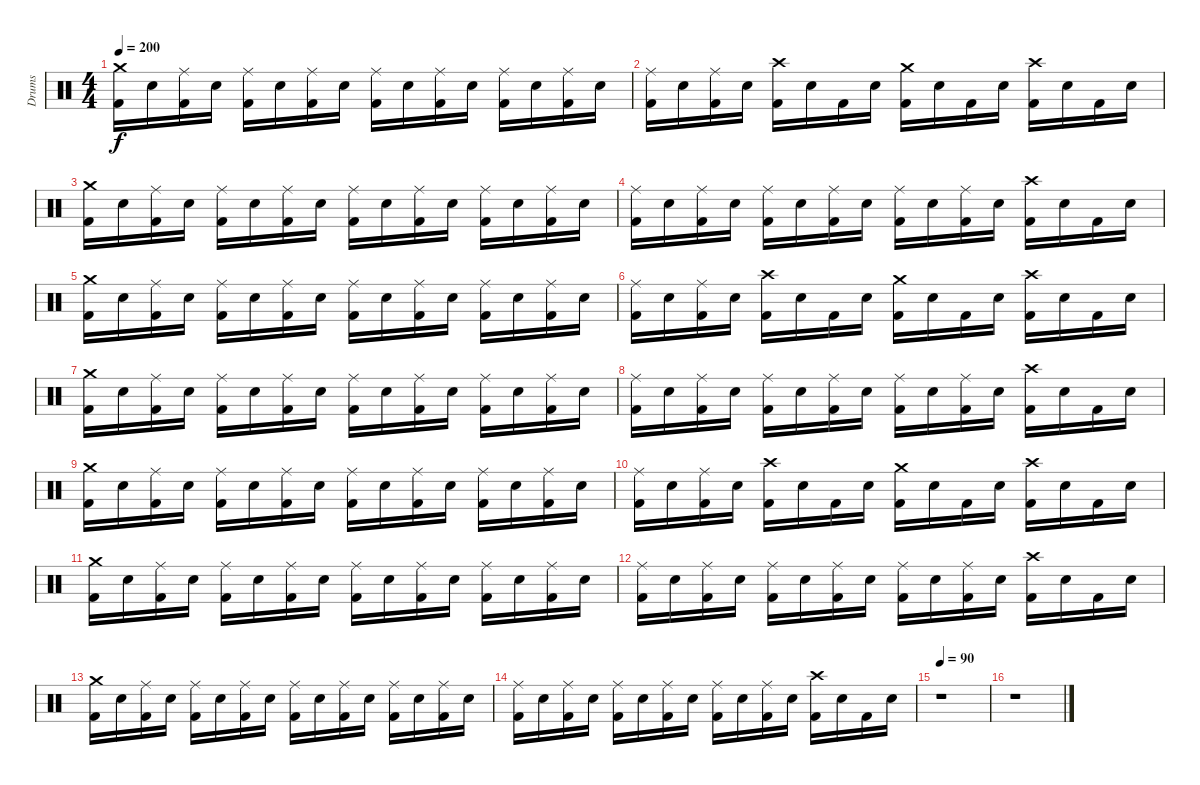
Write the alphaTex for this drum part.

\track ("Drums" "Drums") {instrument percussion}
\staff {score}
\articulation defaults
\ts (4 4)
\tempo 200
\clef neutral
\ks c
("Crash medium (hit)" "Kick (hit) 2").16{dy f} "Electric Snare (hit)".16 ("Ride (middle)" "Kick (hit) 2").16 "Electric Snare (hit)".16 ("Ride (middle)" "Kick (hit) 2").16 "Electric Snare (hit)".16 ("Ride (middle)" "Kick (hit) 2").16 "Electric Snare (hit)".16 ("Ride (middle)" "Kick (hit) 2").16 "Electric Snare (hit)".16 ("Ride (middle)" "Kick (hit) 2").16 "Electric Snare (hit)".16 ("Ride (middle)" "Kick (hit) 2").16 "Electric Snare (hit)".16 ("Ride (middle)" "Kick (hit) 2").16 "Electric Snare (hit)".16 |
("Ride (middle)" "Kick (hit) 2").16 "Electric Snare (hit)".16 ("Ride (middle)" "Kick (hit) 2").16 "Electric Snare (hit)".16 ("Crash high (hit)" "Kick (hit) 2").16 "Electric Snare (hit)".16 "Kick (hit) 2".16 "Electric Snare (hit)".16 ("Crash medium (hit)" "Kick (hit) 2").16 "Electric Snare (hit)".16 "Kick (hit) 2".16 "Electric Snare (hit)".16 ("Crash high (hit)" "Kick (hit) 2").16 "Electric Snare (hit)".16 "Kick (hit) 2".16 "Electric Snare (hit)".16 |
("Crash medium (hit)" "Kick (hit) 2").16 "Electric Snare (hit)".16 ("Ride (middle)" "Kick (hit) 2").16 "Electric Snare (hit)".16 ("Ride (middle)" "Kick (hit) 2").16 "Electric Snare (hit)".16 ("Ride (middle)" "Kick (hit) 2").16 "Electric Snare (hit)".16 ("Ride (middle)" "Kick (hit) 2").16 "Electric Snare (hit)".16 ("Ride (middle)" "Kick (hit) 2").16 "Electric Snare (hit)".16 ("Ride (middle)" "Kick (hit) 2").16 "Electric Snare (hit)".16 ("Ride (middle)" "Kick (hit) 2").16 "Electric Snare (hit)".16 |
("Ride (middle)" "Kick (hit) 2").16 "Electric Snare (hit)".16 ("Ride (middle)" "Kick (hit) 2").16 "Electric Snare (hit)".16 ("Ride (middle)" "Kick (hit) 2").16 "Electric Snare (hit)".16 ("Ride (middle)" "Kick (hit) 2").16 "Electric Snare (hit)".16 ("Ride (middle)" "Kick (hit) 2").16 "Electric Snare (hit)".16 ("Ride (middle)" "Kick (hit) 2").16 "Electric Snare (hit)".16 ("Crash high (hit)" "Kick (hit) 2").16 "Electric Snare (hit)".16 "Kick (hit) 2".16 "Electric Snare (hit)".16 |
("Crash medium (hit)" "Kick (hit) 2").16{volume 13} "Electric Snare (hit)".16 ("Ride (middle)" "Kick (hit) 2").16 "Electric Snare (hit)".16 ("Ride (middle)" "Kick (hit) 2").16 "Electric Snare (hit)".16 ("Ride (middle)" "Kick (hit) 2").16 "Electric Snare (hit)".16 ("Ride (middle)" "Kick (hit) 2").16 "Electric Snare (hit)".16 ("Ride (middle)" "Kick (hit) 2").16 "Electric Snare (hit)".16 ("Ride (middle)" "Kick (hit) 2").16 "Electric Snare (hit)".16 ("Ride (middle)" "Kick (hit) 2").16 "Electric Snare (hit)".16 |
("Ride (middle)" "Kick (hit) 2").16 "Electric Snare (hit)".16 ("Ride (middle)" "Kick (hit) 2").16 "Electric Snare (hit)".16 ("Crash high (hit)" "Kick (hit) 2").16 "Electric Snare (hit)".16 "Kick (hit) 2".16 "Electric Snare (hit)".16 ("Crash medium (hit)" "Kick (hit) 2").16 "Electric Snare (hit)".16 "Kick (hit) 2".16 "Electric Snare (hit)".16 ("Crash high (hit)" "Kick (hit) 2").16 "Electric Snare (hit)".16 "Kick (hit) 2".16 "Electric Snare (hit)".16 |
("Crash medium (hit)" "Kick (hit) 2").16{volume 11} "Electric Snare (hit)".16 ("Ride (middle)" "Kick (hit) 2").16 "Electric Snare (hit)".16 ("Ride (middle)" "Kick (hit) 2").16 "Electric Snare (hit)".16 ("Ride (middle)" "Kick (hit) 2").16 "Electric Snare (hit)".16 ("Ride (middle)" "Kick (hit) 2").16 "Electric Snare (hit)".16 ("Ride (middle)" "Kick (hit) 2").16 "Electric Snare (hit)".16 ("Ride (middle)" "Kick (hit) 2").16 "Electric Snare (hit)".16 ("Ride (middle)" "Kick (hit) 2").16 "Electric Snare (hit)".16 |
("Ride (middle)" "Kick (hit) 2").16 "Electric Snare (hit)".16 ("Ride (middle)" "Kick (hit) 2").16 "Electric Snare (hit)".16 ("Ride (middle)" "Kick (hit) 2").16 "Electric Snare (hit)".16 ("Ride (middle)" "Kick (hit) 2").16 "Electric Snare (hit)".16 ("Ride (middle)" "Kick (hit) 2").16 "Electric Snare (hit)".16 ("Ride (middle)" "Kick (hit) 2").16 "Electric Snare (hit)".16 ("Crash high (hit)" "Kick (hit) 2").16 "Electric Snare (hit)".16 "Kick (hit) 2".16 "Electric Snare (hit)".16 |
("Crash medium (hit)" "Kick (hit) 2").16{volume 9} "Electric Snare (hit)".16 ("Ride (middle)" "Kick (hit) 2").16 "Electric Snare (hit)".16 ("Ride (middle)" "Kick (hit) 2").16 "Electric Snare (hit)".16 ("Ride (middle)" "Kick (hit) 2").16 "Electric Snare (hit)".16 ("Ride (middle)" "Kick (hit) 2").16 "Electric Snare (hit)".16 ("Ride (middle)" "Kick (hit) 2").16 "Electric Snare (hit)".16 ("Ride (middle)" "Kick (hit) 2").16 "Electric Snare (hit)".16 ("Ride (middle)" "Kick (hit) 2").16 "Electric Snare (hit)".16 |
("Ride (middle)" "Kick (hit) 2").16 "Electric Snare (hit)".16 ("Ride (middle)" "Kick (hit) 2").16 "Electric Snare (hit)".16 ("Crash high (hit)" "Kick (hit) 2").16 "Electric Snare (hit)".16 "Kick (hit) 2".16 "Electric Snare (hit)".16 ("Crash medium (hit)" "Kick (hit) 2").16 "Electric Snare (hit)".16 "Kick (hit) 2".16 "Electric Snare (hit)".16 ("Crash high (hit)" "Kick (hit) 2").16 "Electric Snare (hit)".16 "Kick (hit) 2".16 "Electric Snare (hit)".16 |
("Crash medium (hit)" "Kick (hit) 2").16{volume 0} "Electric Snare (hit)".16 ("Ride (middle)" "Kick (hit) 2").16 "Electric Snare (hit)".16 ("Ride (middle)" "Kick (hit) 2").16 "Electric Snare (hit)".16 ("Ride (middle)" "Kick (hit) 2").16 "Electric Snare (hit)".16 ("Ride (middle)" "Kick (hit) 2").16 "Electric Snare (hit)".16 ("Ride (middle)" "Kick (hit) 2").16 "Electric Snare (hit)".16 ("Ride (middle)" "Kick (hit) 2").16 "Electric Snare (hit)".16 ("Ride (middle)" "Kick (hit) 2").16 "Electric Snare (hit)".16 |
("Ride (middle)" "Kick (hit) 2").16 "Electric Snare (hit)".16 ("Ride (middle)" "Kick (hit) 2").16 "Electric Snare (hit)".16 ("Ride (middle)" "Kick (hit) 2").16 "Electric Snare (hit)".16 ("Ride (middle)" "Kick (hit) 2").16 "Electric Snare (hit)".16 ("Ride (middle)" "Kick (hit) 2").16 "Electric Snare (hit)".16 ("Ride (middle)" "Kick (hit) 2").16 "Electric Snare (hit)".16 ("Crash high (hit)" "Kick (hit) 2").16 "Electric Snare (hit)".16 "Kick (hit) 2".16 "Electric Snare (hit)".16 |
("Crash medium (hit)" "Kick (hit) 2").16 "Electric Snare (hit)".16 ("Ride (middle)" "Kick (hit) 2").16 "Electric Snare (hit)".16 ("Ride (middle)" "Kick (hit) 2").16 "Electric Snare (hit)".16 ("Ride (middle)" "Kick (hit) 2").16 "Electric Snare (hit)".16 ("Ride (middle)" "Kick (hit) 2").16 "Electric Snare (hit)".16 ("Ride (middle)" "Kick (hit) 2").16 "Electric Snare (hit)".16 ("Ride (middle)" "Kick (hit) 2").16 "Electric Snare (hit)".16 ("Ride (middle)" "Kick (hit) 2").16 "Electric Snare (hit)".16 |
("Ride (middle)" "Kick (hit) 2").16 "Electric Snare (hit)".16 ("Ride (middle)" "Kick (hit) 2").16 "Electric Snare (hit)".16 ("Ride (middle)" "Kick (hit) 2").16 "Electric Snare (hit)".16 ("Ride (middle)" "Kick (hit) 2").16 "Electric Snare (hit)".16 ("Ride (middle)" "Kick (hit) 2").16 "Electric Snare (hit)".16 ("Ride (middle)" "Kick (hit) 2").16 "Electric Snare (hit)".16 ("Crash high (hit)" "Kick (hit) 2").16 "Electric Snare (hit)".16 "Kick (hit) 2".16 "Electric Snare (hit)".16 |
\section ("" "")
\tempo 90
r.1 |
r.1
